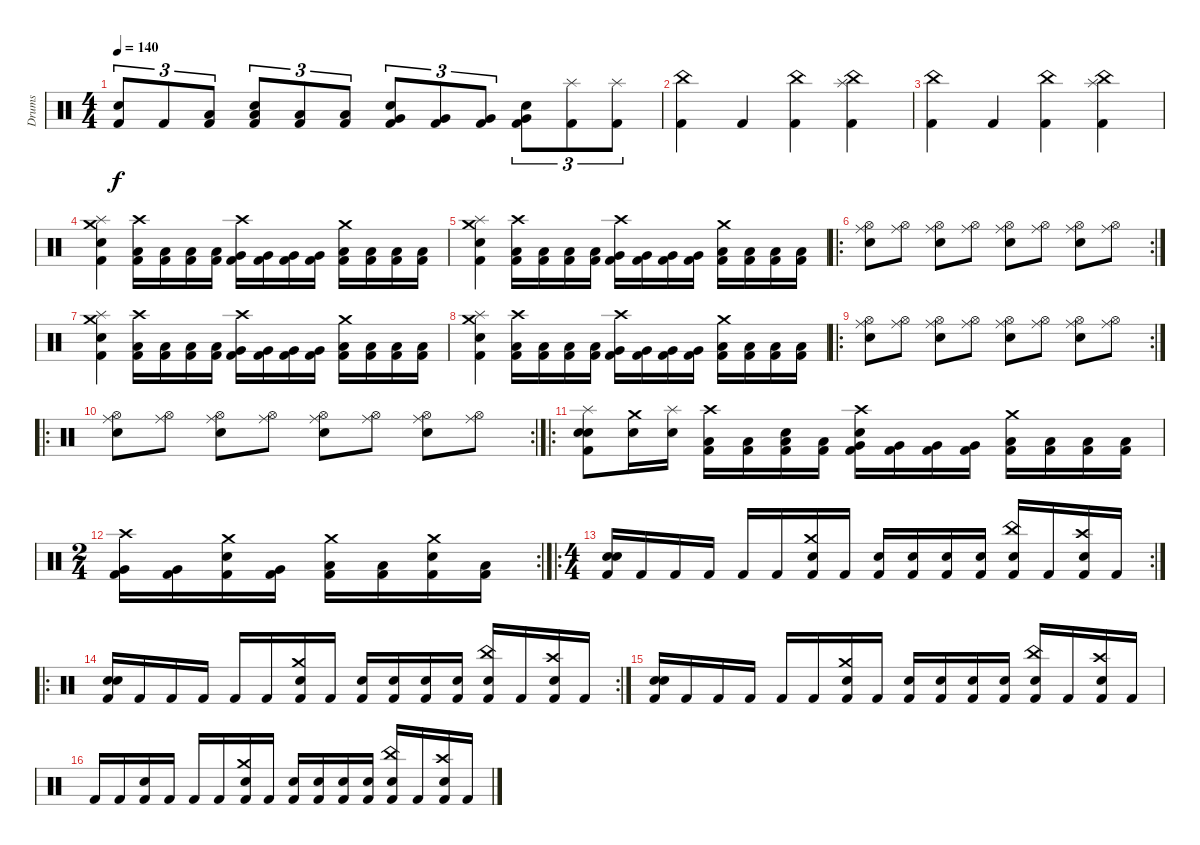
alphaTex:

\track ("Drums" "Drums") {instrument percussion}
\staff {score}
\articulation defaults
\ts (4 4)
\tempo 140
\clef neutral
\ks c
("Snare (hit) 2" "Kick (hit) 2").8{tu (3 2) dy f} "Kick (hit) 2".8{tu (3 2)} ("Low Floor Tom (hit)" "Kick (hit) 2").8{tu (3 2)} ("Low Floor Tom (hit)" "Snare (hit) 2" "Kick (hit) 2").8{tu (3 2)} ("Low Floor Tom (hit)" "Kick (hit) 2").8{tu (3 2)} ("Low Floor Tom (hit)" "Kick (hit) 2").8{tu (3 2)} ("Very Low Tom (hit)" "Snare (hit) 2" "Kick (hit) 2").8{tu (3 2)} ("Very Low Tom (hit)" "Kick (hit) 2").8{tu (3 2)} ("Very Low Tom (hit)" "Kick (hit) 2").8{tu (3 2)} ("Very Low Tom (hit)" "Snare (hit) 2" "Kick (hit) 2").8{tu (3 2)} ("Splash (hit)" "Kick (hit) 2").8{tu (3 2)} ("Splash (hit)" "Kick (hit) 2").8{tu (3 2)} |
("China (hit)" "Kick (hit) 2").4 "Kick (hit) 2".4 ("China (hit)" "Kick (hit) 2").4 ("Splash (hit)" "China (hit)" "Kick (hit) 2").4 |
("China (hit)" "Kick (hit) 2").4 "Kick (hit) 2".4 ("China (hit)" "Kick (hit) 2").4 ("Splash (hit)" "China (hit)" "Kick (hit) 2").4 |
("Snare (hit) 2" "Crash medium (hit)" "Splash (hit)" "Kick (hit) 2").4 ("Crash high (hit)" "Low Floor Tom (hit)" "Kick (hit) 2").16 ("Low Floor Tom (hit)" "Kick (hit) 2").16 ("Low Floor Tom (hit)" "Kick (hit) 2").16 ("Low Floor Tom (hit)" "Kick (hit) 2").16 ("Crash high (hit)" "Very Low Tom (hit)" "Kick (hit) 2").16 ("Very Low Tom (hit)" "Kick (hit) 2").16 ("Very Low Tom (hit)" "Kick (hit) 2").16 ("Very Low Tom (hit)" "Kick (hit) 2").16 ("Crash medium (hit)" "Low Floor Tom (hit)" "Kick (hit) 2").16 ("Low Floor Tom (hit)" "Kick (hit) 2").16 ("Low Floor Tom (hit)" "Kick (hit) 2").16 ("Low Floor Tom (hit)" "Kick (hit) 2").16 |
("Snare (hit) 2" "Crash medium (hit)" "Splash (hit)" "Kick (hit) 2").4 ("Crash high (hit)" "Low Floor Tom (hit)" "Kick (hit) 2").16 ("Low Floor Tom (hit)" "Kick (hit) 2").16 ("Low Floor Tom (hit)" "Kick (hit) 2").16 ("Low Floor Tom (hit)" "Kick (hit) 2").16 ("Crash high (hit)" "Very Low Tom (hit)" "Kick (hit) 2").16 ("Very Low Tom (hit)" "Kick (hit) 2").16 ("Very Low Tom (hit)" "Kick (hit) 2").16 ("Very Low Tom (hit)" "Kick (hit) 2").16 ("Crash medium (hit)" "Low Floor Tom (hit)" "Kick (hit) 2").16 ("Low Floor Tom (hit)" "Kick (hit) 2").16 ("Low Floor Tom (hit)" "Kick (hit) 2").16 ("Low Floor Tom (hit)" "Kick (hit) 2").16 |
\ro
\rc 2
("Ride (middle)" "Snare (hit) 2" "Hi-Hat (open)").8 ("Ride (middle)" "Hi-Hat (open)").8 ("Ride (middle)" "Snare (hit) 2" "Hi-Hat (open)").8 ("Ride (middle)" "Hi-Hat (open)").8 ("Ride (middle)" "Snare (hit) 2" "Hi-Hat (open)").8 ("Ride (middle)" "Hi-Hat (open)").8 ("Ride (middle)" "Snare (hit) 2" "Hi-Hat (open)").8 ("Ride (middle)" "Hi-Hat (open)").8 |
("Snare (hit) 2" "Crash medium (hit)" "Splash (hit)" "Kick (hit) 2").4 ("Crash high (hit)" "Low Floor Tom (hit)" "Kick (hit) 2").16 ("Low Floor Tom (hit)" "Kick (hit) 2").16 ("Low Floor Tom (hit)" "Kick (hit) 2").16 ("Low Floor Tom (hit)" "Kick (hit) 2").16 ("Crash high (hit)" "Very Low Tom (hit)" "Kick (hit) 2").16 ("Very Low Tom (hit)" "Kick (hit) 2").16 ("Very Low Tom (hit)" "Kick (hit) 2").16 ("Very Low Tom (hit)" "Kick (hit) 2").16 ("Crash medium (hit)" "Low Floor Tom (hit)" "Kick (hit) 2").16 ("Low Floor Tom (hit)" "Kick (hit) 2").16 ("Low Floor Tom (hit)" "Kick (hit) 2").16 ("Low Floor Tom (hit)" "Kick (hit) 2").16 |
("Snare (hit) 2" "Crash medium (hit)" "Splash (hit)" "Kick (hit) 2").4 ("Crash high (hit)" "Low Floor Tom (hit)" "Kick (hit) 2").16 ("Low Floor Tom (hit)" "Kick (hit) 2").16 ("Low Floor Tom (hit)" "Kick (hit) 2").16 ("Low Floor Tom (hit)" "Kick (hit) 2").16 ("Crash high (hit)" "Very Low Tom (hit)" "Kick (hit) 2").16 ("Very Low Tom (hit)" "Kick (hit) 2").16 ("Very Low Tom (hit)" "Kick (hit) 2").16 ("Very Low Tom (hit)" "Kick (hit) 2").16 ("Crash medium (hit)" "Low Floor Tom (hit)" "Kick (hit) 2").16 ("Low Floor Tom (hit)" "Kick (hit) 2").16 ("Low Floor Tom (hit)" "Kick (hit) 2").16 ("Low Floor Tom (hit)" "Kick (hit) 2").16 |
\ro
\rc 2
("Ride (middle)" "Snare (hit) 2" "Hi-Hat (open)").8 ("Ride (middle)" "Hi-Hat (open)").8 ("Ride (middle)" "Snare (hit) 2" "Hi-Hat (open)").8 ("Ride (middle)" "Hi-Hat (open)").8 ("Ride (middle)" "Snare (hit) 2" "Hi-Hat (open)").8 ("Ride (middle)" "Hi-Hat (open)").8 ("Ride (middle)" "Snare (hit) 2" "Hi-Hat (open)").8 ("Ride (middle)" "Hi-Hat (open)").8 |
\ro
\rc 2
("Ride (middle)" "Snare (hit) 2" "Hi-Hat (open)").8 ("Ride (middle)" "Hi-Hat (open)").8 ("Ride (middle)" "Snare (hit) 2" "Hi-Hat (open)").8 ("Ride (middle)" "Hi-Hat (open)").8 ("Ride (middle)" "Snare (hit) 2" "Hi-Hat (open)").8 ("Ride (middle)" "Hi-Hat (open)").8 ("Ride (middle)" "Snare (hit) 2" "Hi-Hat (open)").8 ("Ride (middle)" "Hi-Hat (open)").8 |
\ro
("Snare (hit) 2" "Snare (hit) 2" "Splash (hit)" "Kick (hit) 2").8 ("Snare (hit) 2" "Crash medium (hit)").16 ("Snare (hit) 2" "Splash (hit)").16 ("Crash high (hit)" "Low Floor Tom (hit)" "Kick (hit) 2").16 ("Low Floor Tom (hit)" "Kick (hit) 2").16 ("Snare (hit) 2" "Low Floor Tom (hit)" "Kick (hit) 2").16 ("Low Floor Tom (hit)" "Kick (hit) 2").16 ("Snare (hit) 2" "Crash high (hit)" "Very Low Tom (hit)" "Kick (hit) 2").16 ("Very Low Tom (hit)" "Kick (hit) 2").16 ("Very Low Tom (hit)" "Kick (hit) 2").16 ("Very Low Tom (hit)" "Kick (hit) 2").16 ("Crash medium (hit)" "Low Floor Tom (hit)" "Kick (hit) 2").16 ("Low Floor Tom (hit)" "Kick (hit) 2").16 ("Low Floor Tom (hit)" "Kick (hit) 2").16 ("Low Floor Tom (hit)" "Kick (hit) 2").16 |
\rc 2
\ts (2 4)
("Crash high (hit)" "Very Low Tom (hit)" "Kick (hit) 2").16 ("Very Low Tom (hit)" "Kick (hit) 2").16 ("Crash medium (hit)" "Snare (hit) 2" "Kick (hit) 2").16 ("Very Low Tom (hit)" "Kick (hit) 2").16 ("Crash medium (hit)" "Low Floor Tom (hit)" "Kick (hit) 2").16 ("Low Floor Tom (hit)" "Kick (hit) 2").16 ("Crash medium (hit)" "Snare (hit) 2" "Kick (hit) 2").16 ("Low Floor Tom (hit)" "Kick (hit) 2").16 |
\ro
\rc 2
\ts (4 4)
("Electric Snare (hit)" "Snare (hit) 2" "Kick (hit) 2").16 "Kick (hit) 2".16 "Kick (hit) 2".16 "Kick (hit) 2".16 "Kick (hit) 2".16 "Kick (hit) 2".16 ("Crash medium (hit)" "Electric Snare (hit)" "Kick (hit) 2").16 "Kick (hit) 2".16 ("Electric Snare (hit)" "Kick (hit) 2").16 ("Snare (hit) 2" "Kick (hit) 2").16 ("Electric Snare (hit)" "Kick (hit) 2").16 ("Snare (hit) 2" "Kick (hit) 2").16 ("China (hit)" "Electric Snare (hit)" "Kick (hit) 2").16 "Kick (hit) 2".16 ("Crash high (hit)" "Electric Snare (hit)" "Kick (hit) 2").16 "Kick (hit) 2".16 |
\ro
\rc 2
("Electric Snare (hit)" "Snare (hit) 2" "Kick (hit) 2").16 "Kick (hit) 2".16 "Kick (hit) 2".16 "Kick (hit) 2".16 "Kick (hit) 2".16 "Kick (hit) 2".16 ("Crash medium (hit)" "Electric Snare (hit)" "Kick (hit) 2").16 "Kick (hit) 2".16 ("Electric Snare (hit)" "Kick (hit) 2").16 ("Snare (hit) 2" "Kick (hit) 2").16 ("Electric Snare (hit)" "Kick (hit) 2").16 ("Snare (hit) 2" "Kick (hit) 2").16 ("China (hit)" "Electric Snare (hit)" "Kick (hit) 2").16 "Kick (hit) 2".16 ("Crash high (hit)" "Electric Snare (hit)" "Kick (hit) 2").16 "Kick (hit) 2".16 |
("Electric Snare (hit)" "Snare (hit) 2" "Kick (hit) 2").16 "Kick (hit) 2".16 "Kick (hit) 2".16 "Kick (hit) 2".16 "Kick (hit) 2".16 "Kick (hit) 2".16 ("Crash medium (hit)" "Electric Snare (hit)" "Kick (hit) 2").16 "Kick (hit) 2".16 ("Electric Snare (hit)" "Kick (hit) 2").16 ("Snare (hit) 2" "Kick (hit) 2").16 ("Electric Snare (hit)" "Kick (hit) 2").16 ("Snare (hit) 2" "Kick (hit) 2").16 ("China (hit)" "Electric Snare (hit)" "Kick (hit) 2").16 "Kick (hit) 2".16 ("Crash high (hit)" "Electric Snare (hit)" "Kick (hit) 2").16 "Kick (hit) 2".16 |
"Kick (hit) 2".16 "Kick (hit) 2".16 ("Snare (hit) 2" "Kick (hit) 2").16 "Kick (hit) 2".16 "Kick (hit) 2".16 "Kick (hit) 2".16 ("Crash medium (hit)" "Electric Snare (hit)" "Kick (hit) 2").16 "Kick (hit) 2".16 ("Electric Snare (hit)" "Kick (hit) 2").16 ("Snare (hit) 2" "Kick (hit) 2").16 ("Electric Snare (hit)" "Kick (hit) 2").16 ("Snare (hit) 2" "Kick (hit) 2").16 ("China (hit)" "Electric Snare (hit)" "Kick (hit) 2").16 "Kick (hit) 2".16 ("Crash high (hit)" "Electric Snare (hit)" "Kick (hit) 2").16 "Kick (hit) 2".16
